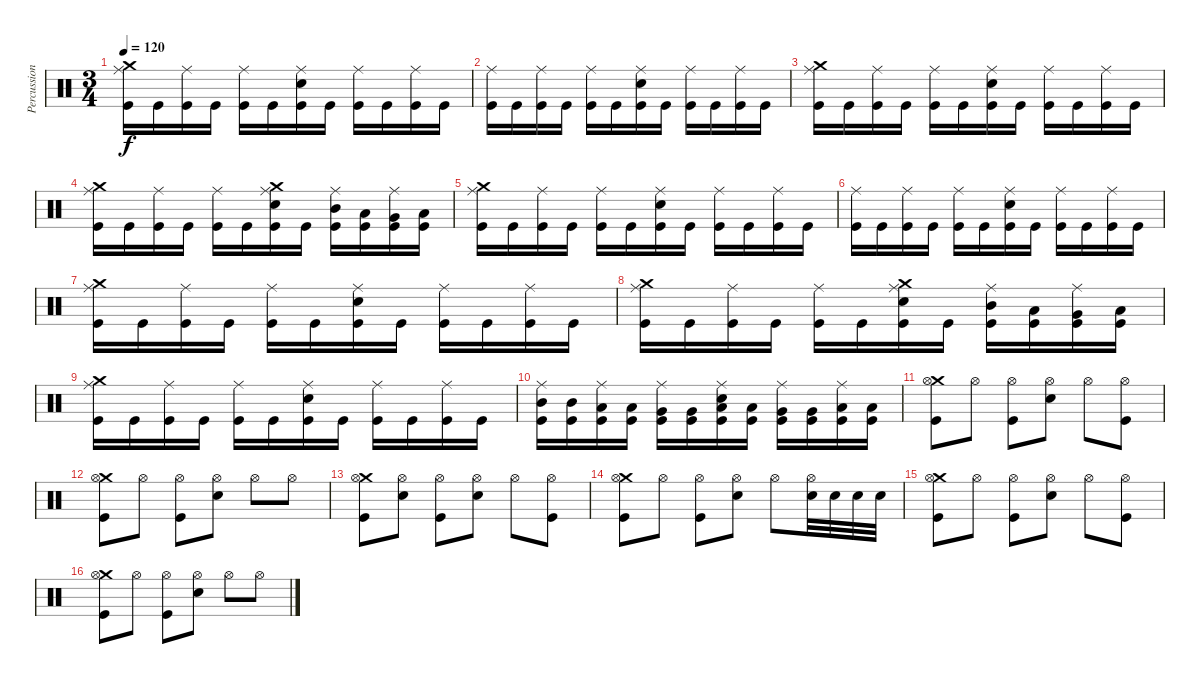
\track ("Percussion" "Percussion") {instrument percussion}
\staff {score}
\articulation defaults
\ts (3 4)
\tempo 120
\clef neutral
\ks c
("Crash medium (hit)" "Ride (middle)" "Kick (hit)").16{dy f} "Kick (hit)".16 ("Ride (middle)" "Kick (hit)").16 "Kick (hit)".16 ("Ride (middle)" "Kick (hit)").16 "Kick (hit)".16 ("Ride (middle)" "Electric Snare (hit)" "Kick (hit)").16 "Kick (hit)".16 ("Ride (middle)" "Kick (hit)").16 "Kick (hit)".16 ("Ride (middle)" "Kick (hit)").16 "Kick (hit)".16 |
("Ride (middle)" "Kick (hit)").16 "Kick (hit)".16 ("Ride (middle)" "Kick (hit)").16 "Kick (hit)".16 ("Ride (middle)" "Kick (hit)").16 "Kick (hit)".16 ("Ride (middle)" "Electric Snare (hit)" "Kick (hit)").16 "Kick (hit)".16 ("Ride (middle)" "Kick (hit)").16 "Kick (hit)".16 ("Ride (middle)" "Kick (hit)").16 "Kick (hit)".16 |
("Crash medium (hit)" "Ride (middle)" "Kick (hit)").16 "Kick (hit)".16 ("Ride (middle)" "Kick (hit)").16 "Kick (hit)".16 ("Ride (middle)" "Kick (hit)").16 "Kick (hit)".16 ("Ride (middle)" "Electric Snare (hit)" "Kick (hit)").16 "Kick (hit)".16 ("Ride (middle)" "Kick (hit)").16 "Kick (hit)".16 ("Ride (middle)" "Kick (hit)").16 "Kick (hit)".16 |
("Crash medium (hit)" "Ride (middle)" "Kick (hit)").16 "Kick (hit)".16 ("Ride (middle)" "Kick (hit)").16 "Kick (hit)".16 ("Ride (middle)" "Kick (hit)").16 "Kick (hit)".16 ("Crash medium (hit)" "Ride (middle)" "Electric Snare (hit)" "Kick (hit)").16 "Kick (hit)".16 ("Mid Tom (hit)" "Ride (middle)" "Kick (hit)").16 ("Low Tom (hit)" "Kick (hit)").16 ("Very Low Tom (hit)" "Ride (middle)" "Kick (hit)").16 ("Low Floor Tom (hit)" "Kick (hit)").16 |
("Crash medium (hit)" "Ride (middle)" "Kick (hit)").16 "Kick (hit)".16 ("Ride (middle)" "Kick (hit)").16 "Kick (hit)".16 ("Ride (middle)" "Kick (hit)").16 "Kick (hit)".16 ("Ride (middle)" "Electric Snare (hit)" "Kick (hit)").16 "Kick (hit)".16 ("Ride (middle)" "Kick (hit)").16 "Kick (hit)".16 ("Ride (middle)" "Kick (hit)").16 "Kick (hit)".16 |
("Ride (middle)" "Kick (hit)").16 "Kick (hit)".16 ("Ride (middle)" "Kick (hit)").16 "Kick (hit)".16 ("Ride (middle)" "Kick (hit)").16 "Kick (hit)".16 ("Ride (middle)" "Electric Snare (hit)" "Kick (hit)").16 "Kick (hit)".16 ("Ride (middle)" "Kick (hit)").16 "Kick (hit)".16 ("Ride (middle)" "Kick (hit)").16 "Kick (hit)".16 |
("Crash medium (hit)" "Ride (middle)" "Kick (hit)").16 "Kick (hit)".16 ("Ride (middle)" "Kick (hit)").16 "Kick (hit)".16 ("Ride (middle)" "Kick (hit)").16 "Kick (hit)".16 ("Ride (middle)" "Electric Snare (hit)" "Kick (hit)").16 "Kick (hit)".16 ("Ride (middle)" "Kick (hit)").16 "Kick (hit)".16 ("Ride (middle)" "Kick (hit)").16 "Kick (hit)".16 |
("Crash medium (hit)" "Ride (middle)" "Kick (hit)").16 "Kick (hit)".16 ("Ride (middle)" "Kick (hit)").16 "Kick (hit)".16 ("Ride (middle)" "Kick (hit)").16 "Kick (hit)".16 ("Crash medium (hit)" "Ride (middle)" "Electric Snare (hit)" "Kick (hit)").16 "Kick (hit)".16 ("Mid Tom (hit)" "Ride (middle)" "Kick (hit)").16 ("Low Tom (hit)" "Kick (hit)").16 ("Very Low Tom (hit)" "Ride (middle)" "Kick (hit)").16 ("Low Floor Tom (hit)" "Kick (hit)").16 |
("Crash medium (hit)" "Ride (middle)" "Kick (hit)").16 "Kick (hit)".16 ("Ride (middle)" "Kick (hit)").16 "Kick (hit)".16 ("Ride (middle)" "Kick (hit)").16 "Kick (hit)".16 ("Ride (middle)" "Electric Snare (hit)" "Kick (hit)").16 "Kick (hit)".16 ("Ride (middle)" "Kick (hit)").16 "Kick (hit)".16 ("Ride (middle)" "Kick (hit)").16 "Kick (hit)".16 |
("Mid Tom (hit)" "Ride (middle)" "Kick (hit)").16 ("Mid Tom (hit)" "Kick (hit)").16 ("Low Tom (hit)" "Ride (middle)" "Kick (hit)").16 ("Low Tom (hit)" "Kick (hit)").16 ("Very Low Tom (hit)" "Ride (middle)" "Kick (hit)").16 ("Very Low Tom (hit)" "Kick (hit)").16 ("Low Tom (hit)" "Ride (middle)" "Electric Snare (hit)" "Kick (hit)").16 ("Low Tom (hit)" "Kick (hit)").16 ("Very Low Tom (hit)" "Ride (middle)" "Kick (hit)").16 ("Very Low Tom (hit)" "Kick (hit)").16 ("Low Floor Tom (hit)" "Ride (middle)" "Kick (hit)").16 ("Low Floor Tom (hit)" "Kick (hit)").16 |
("Crash medium (hit)" "Hi-Hat (open)" "Kick (hit)").8 "Hi-Hat (open)".8 ("Hi-Hat (open)" "Kick (hit)").8 ("Hi-Hat (open)" "Electric Snare (hit)").8 "Hi-Hat (open)".8 ("Hi-Hat (open)" "Kick (hit)").8 |
("Crash medium (hit)" "Hi-Hat (open)" "Kick (hit)").8 "Hi-Hat (open)".8 ("Hi-Hat (open)" "Kick (hit)").8 ("Hi-Hat (open)" "Electric Snare (hit)").8 "Hi-Hat (open)".8 "Hi-Hat (open)".8 |
("Crash medium (hit)" "Hi-Hat (open)" "Kick (hit)").8 ("Hi-Hat (open)" "Electric Snare (hit)").8 ("Hi-Hat (open)" "Kick (hit)").8 ("Hi-Hat (open)" "Electric Snare (hit)").8 "Hi-Hat (open)".8 ("Hi-Hat (open)" "Kick (hit)").8 |
("Crash medium (hit)" "Hi-Hat (open)" "Kick (hit)").8 "Hi-Hat (open)".8 ("Hi-Hat (open)" "Kick (hit)").8 ("Hi-Hat (open)" "Electric Snare (hit)").8 "Hi-Hat (open)".8 ("Hi-Hat (open)" "Electric Snare (hit)").32 "Electric Snare (hit)".32 "Electric Snare (hit)".32 "Electric Snare (hit)".32 |
("Crash medium (hit)" "Hi-Hat (open)" "Kick (hit)").8 "Hi-Hat (open)".8 ("Hi-Hat (open)" "Kick (hit)").8 ("Hi-Hat (open)" "Electric Snare (hit)").8 "Hi-Hat (open)".8 ("Hi-Hat (open)" "Kick (hit)").8 |
("Crash medium (hit)" "Hi-Hat (open)" "Kick (hit)").8 "Hi-Hat (open)".8 ("Hi-Hat (open)" "Kick (hit)").8 ("Hi-Hat (open)" "Electric Snare (hit)").8 "Hi-Hat (open)".8 "Hi-Hat (open)".8
